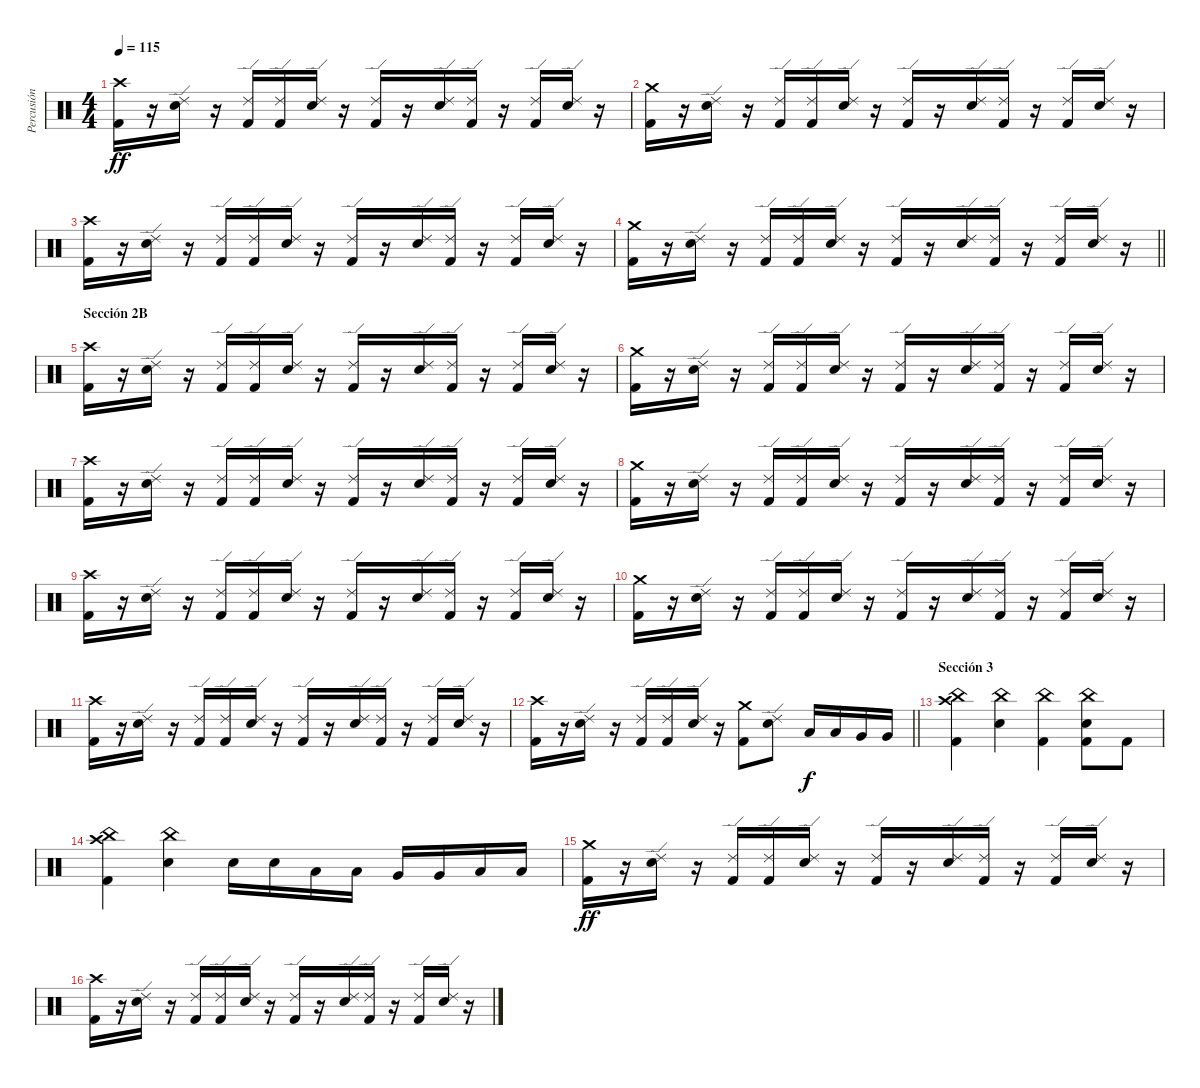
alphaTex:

\track ("Percusión" "Percusión") {instrument percussion}
\staff {score}
\articulation defaults
\ts (4 4)
\tempo 115
\clef neutral
\ks c
("Crash high (hit)" "Kick (hit) 2").16{dy ff} r.16 ("Ride (edge) 2" "Snare (hit) 2").16 r.16 ("Ride (edge) 2" "Kick (hit) 2").16 ("Ride (edge) 2" "Kick (hit) 2").16 ("Ride (edge) 2" "Snare (hit) 2").16 r.16 ("Ride (edge) 2" "Kick (hit) 2").16 r.16 ("Ride (edge) 2" "Snare (hit) 2").16 ("Ride (edge) 2" "Kick (hit) 2").16 r.16 ("Ride (edge) 2" "Kick (hit) 2").16 ("Ride (edge) 2" "Snare (hit) 2").16 r.16 |
("Crash medium (hit)" "Kick (hit) 2").16 r.16 ("Ride (edge) 2" "Snare (hit) 2").16 r.16 ("Ride (edge) 2" "Kick (hit) 2").16 ("Ride (edge) 2" "Kick (hit) 2").16 ("Ride (edge) 2" "Snare (hit) 2").16 r.16 ("Ride (edge) 2" "Kick (hit) 2").16 r.16 ("Ride (edge) 2" "Snare (hit) 2").16 ("Ride (edge) 2" "Kick (hit) 2").16 r.16 ("Ride (edge) 2" "Kick (hit) 2").16 ("Ride (edge) 2" "Snare (hit) 2").16 r.16 |
("Crash high (hit)" "Kick (hit) 2").16 r.16 ("Ride (edge) 2" "Snare (hit) 2").16 r.16 ("Ride (edge) 2" "Kick (hit) 2").16 ("Ride (edge) 2" "Kick (hit) 2").16 ("Ride (edge) 2" "Snare (hit) 2").16 r.16 ("Ride (edge) 2" "Kick (hit) 2").16 r.16 ("Ride (edge) 2" "Snare (hit) 2").16 ("Ride (edge) 2" "Kick (hit) 2").16 r.16 ("Ride (edge) 2" "Kick (hit) 2").16 ("Ride (edge) 2" "Snare (hit) 2").16 r.16 |
\barLineRight lightlight
("Crash medium (hit)" "Kick (hit) 2").16 r.16 ("Ride (edge) 2" "Snare (hit) 2").16 r.16 ("Ride (edge) 2" "Kick (hit) 2").16 ("Ride (edge) 2" "Kick (hit) 2").16 ("Ride (edge) 2" "Snare (hit) 2").16 r.16 ("Ride (edge) 2" "Kick (hit) 2").16 r.16 ("Ride (edge) 2" "Snare (hit) 2").16 ("Ride (edge) 2" "Kick (hit) 2").16 r.16 ("Ride (edge) 2" "Kick (hit) 2").16 ("Ride (edge) 2" "Snare (hit) 2").16 r.16 |
\section ("" "Sección 2B")
("Crash high (hit)" "Kick (hit) 2").16 r.16 ("Ride (edge) 2" "Snare (hit) 2").16 r.16 ("Ride (edge) 2" "Kick (hit) 2").16 ("Ride (edge) 2" "Kick (hit) 2").16 ("Ride (edge) 2" "Snare (hit) 2").16 r.16 ("Ride (edge) 2" "Kick (hit) 2").16 r.16 ("Ride (edge) 2" "Snare (hit) 2").16 ("Ride (edge) 2" "Kick (hit) 2").16 r.16 ("Ride (edge) 2" "Kick (hit) 2").16 ("Ride (edge) 2" "Snare (hit) 2").16 r.16 |
("Crash medium (hit)" "Kick (hit) 2").16 r.16 ("Ride (edge) 2" "Snare (hit) 2").16 r.16 ("Ride (edge) 2" "Kick (hit) 2").16 ("Ride (edge) 2" "Kick (hit) 2").16 ("Ride (edge) 2" "Snare (hit) 2").16 r.16 ("Ride (edge) 2" "Kick (hit) 2").16 r.16 ("Ride (edge) 2" "Snare (hit) 2").16 ("Ride (edge) 2" "Kick (hit) 2").16 r.16 ("Ride (edge) 2" "Kick (hit) 2").16 ("Ride (edge) 2" "Snare (hit) 2").16 r.16 |
("Crash high (hit)" "Kick (hit) 2").16 r.16 ("Ride (edge) 2" "Snare (hit) 2").16 r.16 ("Ride (edge) 2" "Kick (hit) 2").16 ("Ride (edge) 2" "Kick (hit) 2").16 ("Ride (edge) 2" "Snare (hit) 2").16 r.16 ("Ride (edge) 2" "Kick (hit) 2").16 r.16 ("Ride (edge) 2" "Snare (hit) 2").16 ("Ride (edge) 2" "Kick (hit) 2").16 r.16 ("Ride (edge) 2" "Kick (hit) 2").16 ("Ride (edge) 2" "Snare (hit) 2").16 r.16 |
("Crash medium (hit)" "Kick (hit) 2").16 r.16 ("Ride (edge) 2" "Snare (hit) 2").16 r.16 ("Ride (edge) 2" "Kick (hit) 2").16 ("Ride (edge) 2" "Kick (hit) 2").16 ("Ride (edge) 2" "Snare (hit) 2").16 r.16 ("Ride (edge) 2" "Kick (hit) 2").16 r.16 ("Ride (edge) 2" "Snare (hit) 2").16 ("Ride (edge) 2" "Kick (hit) 2").16 r.16 ("Ride (edge) 2" "Kick (hit) 2").16 ("Ride (edge) 2" "Snare (hit) 2").16 r.16 |
("Crash high (hit)" "Kick (hit) 2").16 r.16 ("Ride (edge) 2" "Snare (hit) 2").16 r.16 ("Ride (edge) 2" "Kick (hit) 2").16 ("Ride (edge) 2" "Kick (hit) 2").16 ("Ride (edge) 2" "Snare (hit) 2").16 r.16 ("Ride (edge) 2" "Kick (hit) 2").16 r.16 ("Ride (edge) 2" "Snare (hit) 2").16 ("Ride (edge) 2" "Kick (hit) 2").16 r.16 ("Ride (edge) 2" "Kick (hit) 2").16 ("Ride (edge) 2" "Snare (hit) 2").16 r.16 |
("Crash medium (hit)" "Kick (hit) 2").16 r.16 ("Ride (edge) 2" "Snare (hit) 2").16 r.16 ("Ride (edge) 2" "Kick (hit) 2").16 ("Ride (edge) 2" "Kick (hit) 2").16 ("Ride (edge) 2" "Snare (hit) 2").16 r.16 ("Ride (edge) 2" "Kick (hit) 2").16 r.16 ("Ride (edge) 2" "Snare (hit) 2").16 ("Ride (edge) 2" "Kick (hit) 2").16 r.16 ("Ride (edge) 2" "Kick (hit) 2").16 ("Ride (edge) 2" "Snare (hit) 2").16 r.16 |
("Crash high (hit)" "Kick (hit) 2").16 r.16 ("Ride (edge) 2" "Snare (hit) 2").16 r.16 ("Ride (edge) 2" "Kick (hit) 2").16 ("Ride (edge) 2" "Kick (hit) 2").16 ("Ride (edge) 2" "Snare (hit) 2").16 r.16 ("Ride (edge) 2" "Kick (hit) 2").16 r.16 ("Ride (edge) 2" "Snare (hit) 2").16 ("Ride (edge) 2" "Kick (hit) 2").16 r.16 ("Ride (edge) 2" "Kick (hit) 2").16 ("Ride (edge) 2" "Snare (hit) 2").16 r.16 |
\barLineRight lightlight
("Crash high (hit)" "Kick (hit) 2").16 r.16 ("Ride (edge) 2" "Snare (hit) 2").16 r.16 ("Ride (edge) 2" "Kick (hit) 2").16 ("Ride (edge) 2" "Kick (hit) 2").16 ("Ride (edge) 2" "Snare (hit) 2").16 r.16 ("Crash medium (hit)" "Kick (hit) 2").8 ("Ride (edge) 2" "Snare (hit) 2").8 "Low Tom (hit)".16{dy f} "Low Tom (hit)".16 "Very Low Tom (hit)".16 "Very Low Tom (hit)".16 |
\section ("" "Sección 3")
("China (hit)" "Crash high (hit)" "Kick (hit) 2").4 ("China (hit)" "Snare (hit) 2").4 ("China (hit)" "Kick (hit) 2").4 ("China (hit)" "Snare (hit) 2" "Kick (hit) 2").8 "Kick (hit) 2".8 |
("China (hit)" "Crash high (hit)" "Kick (hit) 2").4 ("China (hit)" "Snare (hit) 2").4 "Snare (hit) 2".16 "Snare (hit) 2".16 "Low Tom (hit)".16 "Low Tom (hit)".16 "Very Low Tom (hit)".16 "Very Low Tom (hit)".16 "Low Floor Tom (hit)".16 "Low Floor Tom (hit)".16 |
("Crash medium (hit)" "Kick (hit) 2").16{dy ff} r.16 ("Ride (edge) 2" "Snare (hit) 2").16 r.16 ("Ride (edge) 2" "Kick (hit) 2").16 ("Ride (edge) 2" "Kick (hit) 2").16 ("Ride (edge) 2" "Snare (hit) 2").16 r.16 ("Ride (edge) 2" "Kick (hit) 2").16 r.16 ("Ride (edge) 2" "Snare (hit) 2").16 ("Ride (edge) 2" "Kick (hit) 2").16 r.16 ("Ride (edge) 2" "Kick (hit) 2").16 ("Ride (edge) 2" "Snare (hit) 2").16 r.16 |
("Crash high (hit)" "Kick (hit) 2").16 r.16 ("Ride (edge) 2" "Snare (hit) 2").16 r.16 ("Ride (edge) 2" "Kick (hit) 2").16 ("Ride (edge) 2" "Kick (hit) 2").16 ("Ride (edge) 2" "Snare (hit) 2").16 r.16 ("Ride (edge) 2" "Kick (hit) 2").16 r.16 ("Ride (edge) 2" "Snare (hit) 2").16 ("Ride (edge) 2" "Kick (hit) 2").16 r.16 ("Ride (edge) 2" "Kick (hit) 2").16 ("Ride (edge) 2" "Snare (hit) 2").16 r.16
